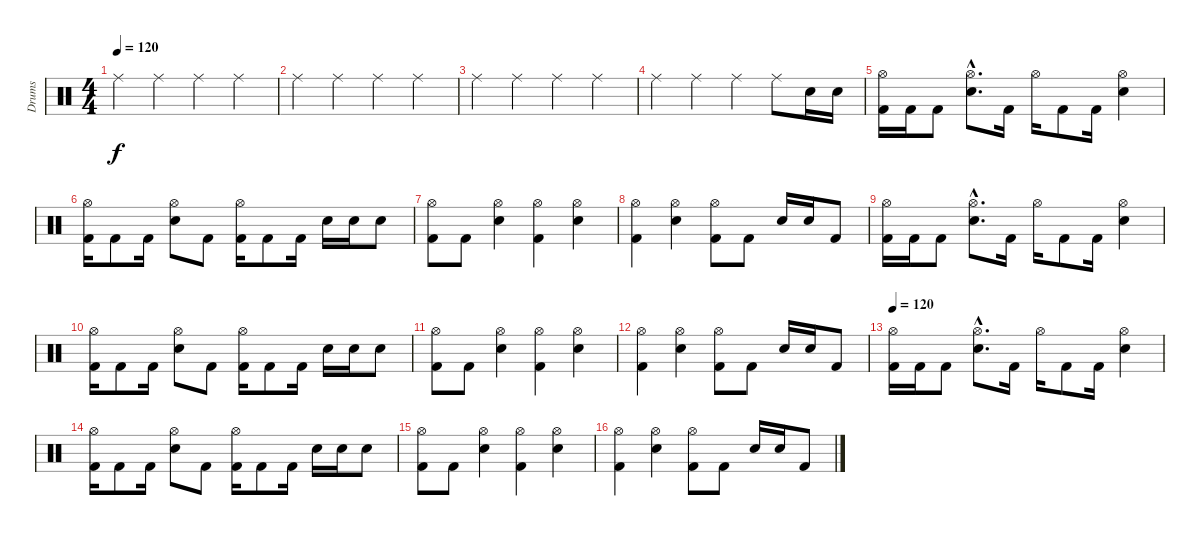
\track ("Drums" "Drums") {instrument percussion}
\staff {score}
\articulation defaults
\ts (4 4)
\tempo 120
\clef neutral
\ks c "Ride (middle)".4{dy f} "Ride (middle)".4 "Ride (middle)".4 "Ride (middle)".4
|
"Ride (middle)".4 "Ride (middle)".4 "Ride (middle)".4 "Ride (middle)".4 |
"Ride (middle)".4 "Ride (middle)".4 "Ride (middle)".4 "Ride (middle)".4 |
"Ride (middle)".4 "Ride (middle)".4 "Ride (middle)".4 "Ride (middle)".8 "Snare (hit) 2".16 "Snare (hit) 2".16 |
("Hi-Hat (open)" "Kick (hit) 2").16 "Kick (hit) 2".16 "Kick (hit) 2".8 ("Hi-Hat (open)"{hac} "Snare (hit) 2"{hac}).8{d} "Kick (hit) 2".16 "Hi-Hat (open)".16 "Kick (hit) 2".8 "Kick (hit) 2".16 ("Hi-Hat (open)" "Snare (hit) 2").4 |
("Hi-Hat (open)" "Kick (hit) 2").16 "Kick (hit) 2".8 "Kick (hit) 2".16 ("Hi-Hat (open)" "Snare (hit) 2").8 "Kick (hit) 2".8 ("Hi-Hat (open)" "Kick (hit) 2").16 "Kick (hit) 2".8 "Kick (hit) 2".16 "Snare (hit) 2".16 "Snare (hit) 2".16 "Snare (hit) 2".8 |
("Hi-Hat (open)" "Kick (hit) 2").8 "Kick (hit) 2".8 ("Hi-Hat (open)" "Snare (hit) 2").4 ("Hi-Hat (open)" "Kick (hit) 2").4 ("Hi-Hat (open)" "Snare (hit) 2").4 |
("Hi-Hat (open)" "Kick (hit) 2").4 ("Hi-Hat (open)" "Snare (hit) 2").4 ("Hi-Hat (open)" "Kick (hit) 2").8 "Kick (hit) 2".8 "Snare (hit) 2".16 "Snare (hit) 2".16 "Kick (hit) 2".8 |
("Hi-Hat (open)" "Kick (hit) 2").16 "Kick (hit) 2".16 "Kick (hit) 2".8 ("Hi-Hat (open)"{hac} "Snare (hit) 2"{hac}).8{d} "Kick (hit) 2".16 "Hi-Hat (open)".16 "Kick (hit) 2".8 "Kick (hit) 2".16 ("Hi-Hat (open)" "Snare (hit) 2").4 |
("Hi-Hat (open)" "Kick (hit) 2").16 "Kick (hit) 2".8 "Kick (hit) 2".16 ("Hi-Hat (open)" "Snare (hit) 2").8 "Kick (hit) 2".8 ("Hi-Hat (open)" "Kick (hit) 2").16 "Kick (hit) 2".8 "Kick (hit) 2".16 "Snare (hit) 2".16 "Snare (hit) 2".16 "Snare (hit) 2".8 |
("Hi-Hat (open)" "Kick (hit) 2").8 "Kick (hit) 2".8 ("Hi-Hat (open)" "Snare (hit) 2").4 ("Hi-Hat (open)" "Kick (hit) 2").4 ("Hi-Hat (open)" "Snare (hit) 2").4 |
("Hi-Hat (open)" "Kick (hit) 2").4 ("Hi-Hat (open)" "Snare (hit) 2").4 ("Hi-Hat (open)" "Kick (hit) 2").8 "Kick (hit) 2".8 "Snare (hit) 2".16 "Snare (hit) 2".16 "Kick (hit) 2".8 |
\tempo 120
("Hi-Hat (open)" "Kick (hit) 2").16 "Kick (hit) 2".16 "Kick (hit) 2".8 ("Hi-Hat (open)"{hac} "Snare (hit) 2"{hac}).8{d} "Kick (hit) 2".16 "Hi-Hat (open)".16 "Kick (hit) 2".8 "Kick (hit) 2".16 ("Hi-Hat (open)" "Snare (hit) 2").4 |
("Hi-Hat (open)" "Kick (hit) 2").16 "Kick (hit) 2".8 "Kick (hit) 2".16 ("Hi-Hat (open)" "Snare (hit) 2").8 "Kick (hit) 2".8 ("Hi-Hat (open)" "Kick (hit) 2").16 "Kick (hit) 2".8 "Kick (hit) 2".16 "Snare (hit) 2".16 "Snare (hit) 2".16 "Snare (hit) 2".8 |
("Hi-Hat (open)" "Kick (hit) 2").8 "Kick (hit) 2".8 ("Hi-Hat (open)" "Snare (hit) 2").4 ("Hi-Hat (open)" "Kick (hit) 2").4 ("Hi-Hat (open)" "Snare (hit) 2").4 |
("Hi-Hat (open)" "Kick (hit) 2").4 ("Hi-Hat (open)" "Snare (hit) 2").4 ("Hi-Hat (open)" "Kick (hit) 2").8 "Kick (hit) 2".8 "Snare (hit) 2".16 "Snare (hit) 2".16 "Kick (hit) 2".8
